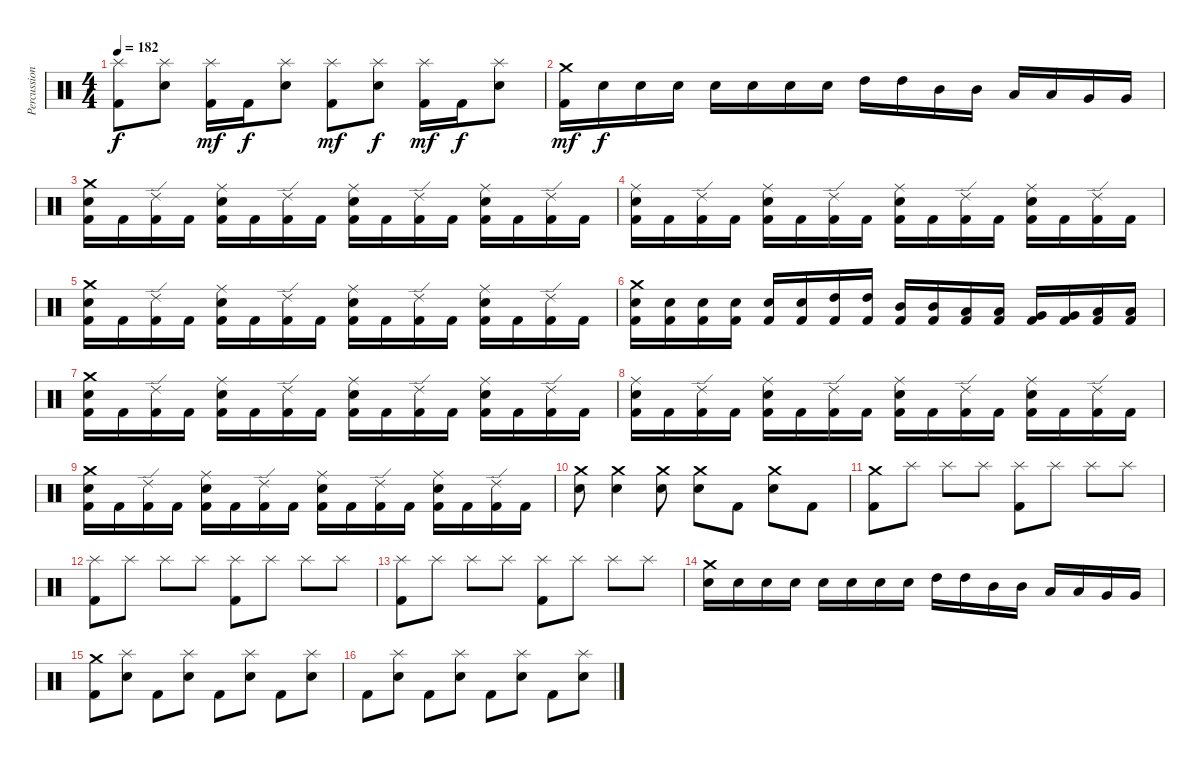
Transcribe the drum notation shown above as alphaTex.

\track ("Percussion" "Percussion") {instrument percussion}
\staff {score}
\articulation defaults
\ts (4 4)
\tempo 182
\clef neutral
\ks c
("Splash (hit)" "Kick (hit) 2").8{dy f} ("Splash (hit)" "Electric Snare (hit)").8 ("Splash (hit)" "Kick (hit) 2").16{dy mf} "Kick (hit) 2".16{dy f} ("Splash (hit)" "Electric Snare (hit)").8 ("Splash (hit)" "Kick (hit) 2").8{dy mf} ("Splash (hit)" "Electric Snare (hit)").8{dy f} ("Splash (hit)" "Kick (hit) 2").16{dy mf} "Kick (hit) 2".16{dy f} ("Splash (hit)" "Electric Snare (hit)").8 |
("Crash medium (hit)" "Kick (hit) 2").16{dy mf} "Electric Snare (hit)".16{dy f} "Electric Snare (hit)".16 "Electric Snare (hit)".16 "Electric Snare (hit)".16 "Electric Snare (hit)".16 "Electric Snare (hit)".16 "Electric Snare (hit)".16 "High Tom (hit)".16 "High Tom (hit)".16 "Mid Tom (hit)".16 "Mid Tom (hit)".16 "Low Tom (hit)".16 "Low Tom (hit)".16 "Very Low Tom (hit)".16 "Very Low Tom (hit)".16 |
("Crash medium (hit)" "Electric Snare (hit)" "Kick (hit) 2").16 "Kick (hit) 2".16 ("Ride (edge) 2" "Kick (hit) 2").16 "Kick (hit) 2".16 ("Ride (middle)" "Electric Snare (hit)" "Kick (hit) 2").16 "Kick (hit) 2".16 ("Ride (edge) 2" "Kick (hit) 2").16 "Kick (hit) 2".16 ("Ride (middle)" "Electric Snare (hit)" "Kick (hit) 2").16 "Kick (hit) 2".16 ("Ride (edge) 2" "Kick (hit) 2").16 "Kick (hit) 2".16 ("Ride (middle)" "Electric Snare (hit)" "Kick (hit) 2").16 "Kick (hit) 2".16 ("Ride (edge) 2" "Kick (hit) 2").16 "Kick (hit) 2".16 |
("Ride (middle)" "Electric Snare (hit)" "Kick (hit) 2").16 "Kick (hit) 2".16 ("Ride (edge) 2" "Kick (hit) 2").16 "Kick (hit) 2".16 ("Ride (middle)" "Electric Snare (hit)" "Kick (hit) 2").16 "Kick (hit) 2".16 ("Ride (edge) 2" "Kick (hit) 2").16 "Kick (hit) 2".16 ("Ride (middle)" "Electric Snare (hit)" "Kick (hit) 2").16 "Kick (hit) 2".16 ("Ride (edge) 2" "Kick (hit) 2").16 "Kick (hit) 2".16 ("Ride (middle)" "Electric Snare (hit)" "Kick (hit) 2").16 "Kick (hit) 2".16 ("Ride (edge) 2" "Kick (hit) 2").16 "Kick (hit) 2".16 |
("Crash medium (hit)" "Electric Snare (hit)" "Kick (hit) 2").16 "Kick (hit) 2".16 ("Ride (edge) 2" "Kick (hit) 2").16 "Kick (hit) 2".16 ("Ride (middle)" "Electric Snare (hit)" "Kick (hit) 2").16 "Kick (hit) 2".16 ("Ride (edge) 2" "Kick (hit) 2").16 "Kick (hit) 2".16 ("Ride (middle)" "Electric Snare (hit)" "Kick (hit) 2").16 "Kick (hit) 2".16 ("Ride (edge) 2" "Kick (hit) 2").16 "Kick (hit) 2".16 ("Ride (middle)" "Electric Snare (hit)" "Kick (hit) 2").16 "Kick (hit) 2".16 ("Ride (edge) 2" "Kick (hit) 2").16 "Kick (hit) 2".16 |
("Crash medium (hit)" "Electric Snare (hit)" "Kick (hit) 2").16 ("Electric Snare (hit)" "Kick (hit) 2").16 ("Electric Snare (hit)" "Kick (hit) 2").16 ("Electric Snare (hit)" "Kick (hit) 2").16 ("Electric Snare (hit)" "Kick (hit) 2").16 ("Electric Snare (hit)" "Kick (hit) 2").16 ("High Tom (hit)" "Kick (hit) 2").16 ("High Tom (hit)" "Kick (hit) 2").16 ("Mid Tom (hit)" "Kick (hit) 2").16 ("Mid Tom (hit)" "Kick (hit) 2").16 ("Low Tom (hit)" "Kick (hit) 2").16 ("Low Tom (hit)" "Kick (hit) 2").16 ("Very Low Tom (hit)" "Kick (hit) 2").16 ("Very Low Tom (hit)" "Kick (hit) 2").16 ("Low Floor Tom (hit)" "Kick (hit) 2").16 ("Low Floor Tom (hit)" "Kick (hit) 2").16 |
("Crash medium (hit)" "Electric Snare (hit)" "Kick (hit) 2").16 "Kick (hit) 2".16 ("Ride (edge) 2" "Kick (hit) 2").16 "Kick (hit) 2".16 ("Ride (middle)" "Electric Snare (hit)" "Kick (hit) 2").16 "Kick (hit) 2".16 ("Ride (edge) 2" "Kick (hit) 2").16 "Kick (hit) 2".16 ("Ride (middle)" "Electric Snare (hit)" "Kick (hit) 2").16 "Kick (hit) 2".16 ("Ride (edge) 2" "Kick (hit) 2").16 "Kick (hit) 2".16 ("Ride (middle)" "Electric Snare (hit)" "Kick (hit) 2").16 "Kick (hit) 2".16 ("Ride (edge) 2" "Kick (hit) 2").16 "Kick (hit) 2".16 |
("Ride (middle)" "Electric Snare (hit)" "Kick (hit) 2").16 "Kick (hit) 2".16 ("Ride (edge) 2" "Kick (hit) 2").16 "Kick (hit) 2".16 ("Ride (middle)" "Electric Snare (hit)" "Kick (hit) 2").16 "Kick (hit) 2".16 ("Ride (edge) 2" "Kick (hit) 2").16 "Kick (hit) 2".16 ("Ride (middle)" "Electric Snare (hit)" "Kick (hit) 2").16 "Kick (hit) 2".16 ("Ride (edge) 2" "Kick (hit) 2").16 "Kick (hit) 2".16 ("Ride (middle)" "Electric Snare (hit)" "Kick (hit) 2").16 "Kick (hit) 2".16 ("Ride (edge) 2" "Kick (hit) 2").16 "Kick (hit) 2".16 |
("Crash medium (hit)" "Electric Snare (hit)" "Kick (hit) 2").16 "Kick (hit) 2".16 ("Ride (edge) 2" "Kick (hit) 2").16 "Kick (hit) 2".16 ("Ride (middle)" "Electric Snare (hit)" "Kick (hit) 2").16 "Kick (hit) 2".16 ("Ride (edge) 2" "Kick (hit) 2").16 "Kick (hit) 2".16 ("Ride (middle)" "Electric Snare (hit)" "Kick (hit) 2").16 "Kick (hit) 2".16 ("Ride (edge) 2" "Kick (hit) 2").16 "Kick (hit) 2".16 ("Ride (middle)" "Electric Snare (hit)" "Kick (hit) 2").16 "Kick (hit) 2".16 ("Ride (edge) 2" "Kick (hit) 2").16 "Kick (hit) 2".16 |
("Crash medium (hit)" "Electric Snare (hit)").8 ("Crash medium (hit)" "Electric Snare (hit)").4 ("Crash medium (hit)" "Electric Snare (hit)").8 ("Crash medium (hit)" "Electric Snare (hit)").8 "Kick (hit) 2".8 ("Crash medium (hit)" "Electric Snare (hit)").8 "Kick (hit) 2".8 |
("Crash medium (hit)" "Kick (hit) 2").8 "Splash (hit)".8 "Splash (hit)".8 "Splash (hit)".8 ("Splash (hit)" "Kick (hit) 2").8 "Splash (hit)".8 "Splash (hit)".8 "Splash (hit)".8 |
("Splash (hit)" "Kick (hit) 2").8 "Splash (hit)".8 "Splash (hit)".8 "Splash (hit)".8 ("Splash (hit)" "Kick (hit) 2").8 "Splash (hit)".8 "Splash (hit)".8 "Splash (hit)".8 |
("Splash (hit)" "Kick (hit) 2").8 "Splash (hit)".8 "Splash (hit)".8 "Splash (hit)".8 ("Splash (hit)" "Kick (hit) 2").8 "Splash (hit)".8 "Splash (hit)".8 "Splash (hit)".8 |
("Crash medium (hit)" "Electric Snare (hit)").16 "Electric Snare (hit)".16 "Electric Snare (hit)".16 "Electric Snare (hit)".16 "Electric Snare (hit)".16 "Electric Snare (hit)".16 "Electric Snare (hit)".16 "Electric Snare (hit)".16 "High Tom (hit)".16 "High Tom (hit)".16 "Mid Tom (hit)".16 "Mid Tom (hit)".16 "Low Tom (hit)".16 "Low Tom (hit)".16 "Very Low Tom (hit)".16 "Very Low Tom (hit)".16 |
("Crash medium (hit)" "Kick (hit) 2").8 ("Splash (hit)" "Electric Snare (hit)").8 "Kick (hit) 2".8 ("Splash (hit)" "Electric Snare (hit)").8 "Kick (hit) 2".8 ("Splash (hit)" "Electric Snare (hit)").8 "Kick (hit) 2".8 ("Splash (hit)" "Electric Snare (hit)").8 |
"Kick (hit) 2".8 ("Splash (hit)" "Electric Snare (hit)").8 "Kick (hit) 2".8 ("Splash (hit)" "Electric Snare (hit)").8 "Kick (hit) 2".8 ("Splash (hit)" "Electric Snare (hit)").8 "Kick (hit) 2".8 ("Splash (hit)" "Electric Snare (hit)").8
